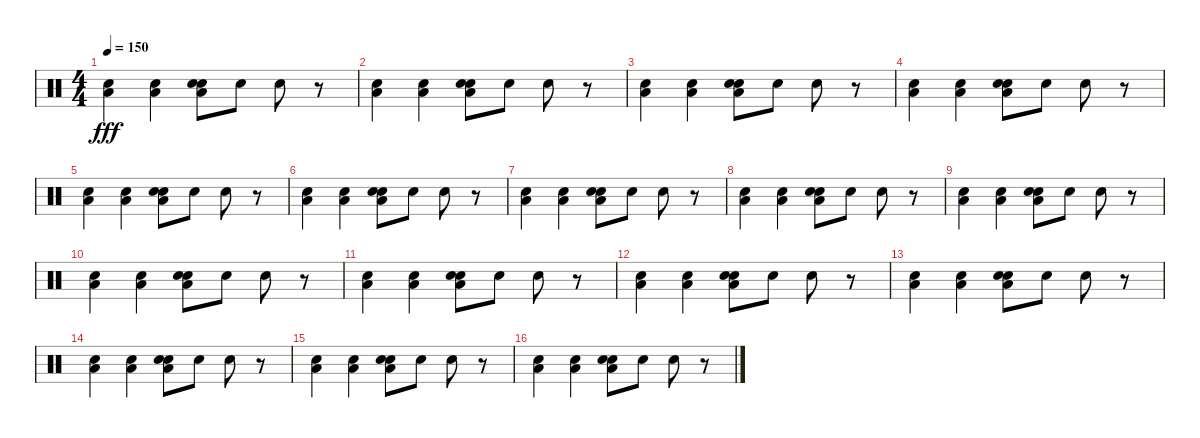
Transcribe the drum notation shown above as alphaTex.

\track "" {instrument percussion}
\staff {score}
\articulation defaults
\ts (4 4)
\tempo 150
\clef neutral
\ks c
("Low Floor Tom (hit)" "Electric Snare (hit)").4{dy fff} ("Low Floor Tom (hit)" "Electric Snare (hit)").4 ("Electric Snare (hit)" "Low Floor Tom (hit)" "Electric Snare (hit)").8 "Electric Snare (hit)".8 "Electric Snare (hit)".8 r.8 |
("Low Floor Tom (hit)" "Electric Snare (hit)").4 ("Low Floor Tom (hit)" "Electric Snare (hit)").4 ("Electric Snare (hit)" "Low Floor Tom (hit)" "Electric Snare (hit)").8 "Electric Snare (hit)".8 "Electric Snare (hit)".8 r.8 |
("Low Floor Tom (hit)" "Electric Snare (hit)").4 ("Low Floor Tom (hit)" "Electric Snare (hit)").4 ("Electric Snare (hit)" "Low Floor Tom (hit)" "Electric Snare (hit)").8 "Electric Snare (hit)".8 "Electric Snare (hit)".8 r.8 |
("Low Floor Tom (hit)" "Snare (hit) 2").4 ("Low Floor Tom (hit)" "Snare (hit) 2").4 ("Electric Snare (hit)" "Low Floor Tom (hit)" "Snare (hit) 2").8 "Electric Snare (hit)".8 "Electric Snare (hit)".8 r.8 |
("Low Floor Tom (hit)" "Snare (hit) 2").4 ("Low Floor Tom (hit)" "Snare (hit) 2").4 ("Electric Snare (hit)" "Low Floor Tom (hit)" "Snare (hit) 2").8 "Electric Snare (hit)".8 "Electric Snare (hit)".8 r.8 |
("Low Floor Tom (hit)" "Electric Snare (hit)").4 ("Low Floor Tom (hit)" "Electric Snare (hit)").4 ("Electric Snare (hit)" "Low Floor Tom (hit)" "Electric Snare (hit)").8 "Electric Snare (hit)".8 "Electric Snare (hit)".8 r.8 |
("Low Floor Tom (hit)" "Electric Snare (hit)").4 ("Low Floor Tom (hit)" "Electric Snare (hit)").4 ("Electric Snare (hit)" "Low Floor Tom (hit)" "Electric Snare (hit)").8 "Electric Snare (hit)".8 "Electric Snare (hit)".8 r.8 |
("Low Floor Tom (hit)" "Electric Snare (hit)").4 ("Low Floor Tom (hit)" "Electric Snare (hit)").4 ("Electric Snare (hit)" "Low Floor Tom (hit)" "Electric Snare (hit)").8 "Electric Snare (hit)".8 "Electric Snare (hit)".8 r.8 |
("Low Floor Tom (hit)" "Electric Snare (hit)").4 ("Low Floor Tom (hit)" "Electric Snare (hit)").4 ("Electric Snare (hit)" "Low Floor Tom (hit)" "Electric Snare (hit)").8 "Electric Snare (hit)".8 "Electric Snare (hit)".8 r.8 |
("Low Floor Tom (hit)" "Snare (hit) 2").4 ("Low Floor Tom (hit)" "Snare (hit) 2").4 ("Electric Snare (hit)" "Low Floor Tom (hit)" "Snare (hit) 2").8 "Electric Snare (hit)".8 "Electric Snare (hit)".8 r.8 |
("Low Floor Tom (hit)" "Snare (hit) 2").4 ("Low Floor Tom (hit)" "Snare (hit) 2").4 ("Electric Snare (hit)" "Low Floor Tom (hit)" "Snare (hit) 2").8 "Electric Snare (hit)".8 "Electric Snare (hit)".8 r.8 |
("Low Floor Tom (hit)" "Electric Snare (hit)").4 ("Low Floor Tom (hit)" "Electric Snare (hit)").4 ("Electric Snare (hit)" "Low Floor Tom (hit)" "Electric Snare (hit)").8 "Electric Snare (hit)".8 "Electric Snare (hit)".8 r.8 |
("Low Floor Tom (hit)" "Electric Snare (hit)").4 ("Low Floor Tom (hit)" "Electric Snare (hit)").4 ("Electric Snare (hit)" "Low Floor Tom (hit)" "Electric Snare (hit)").8 "Electric Snare (hit)".8 "Electric Snare (hit)".8 r.8 |
("Low Floor Tom (hit)" "Electric Snare (hit)").4 ("Low Floor Tom (hit)" "Electric Snare (hit)").4 ("Electric Snare (hit)" "Low Floor Tom (hit)" "Electric Snare (hit)").8 "Electric Snare (hit)".8 "Electric Snare (hit)".8 r.8 |
("Low Floor Tom (hit)" "Electric Snare (hit)").4 ("Low Floor Tom (hit)" "Electric Snare (hit)").4 ("Electric Snare (hit)" "Low Floor Tom (hit)" "Electric Snare (hit)").8 "Electric Snare (hit)".8 "Electric Snare (hit)".8 r.8 |
("Low Floor Tom (hit)" "Snare (hit) 2").4 ("Low Floor Tom (hit)" "Snare (hit) 2").4 ("Electric Snare (hit)" "Low Floor Tom (hit)" "Snare (hit) 2").8 "Electric Snare (hit)".8 "Electric Snare (hit)".8 r.8
